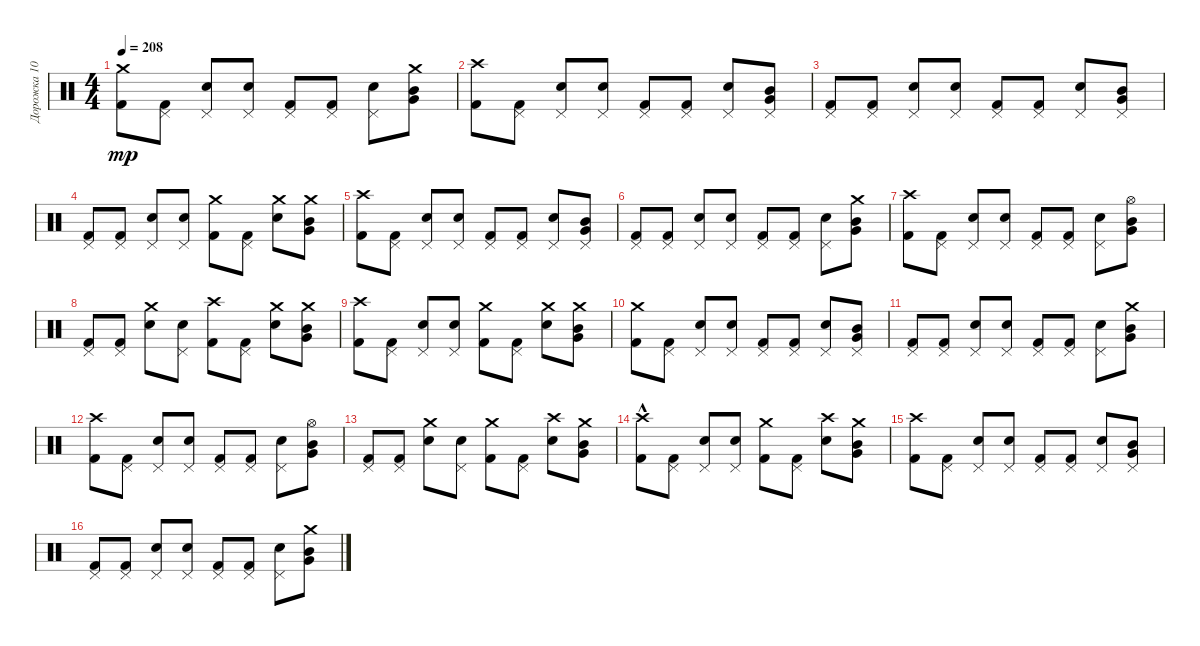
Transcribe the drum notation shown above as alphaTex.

\track ("Дорожка 10" "Дорожка 10") {instrument percussion}
\staff {score}
\articulation defaults
\ts (4 4)
\tempo 208
\clef neutral
\ks c
("Kick (hit) 2" "Crash medium (hit)").8{dy mp} ("Kick (hit) 2" "Pedal Hi-Hat (hit)").8 ("Snare (hit) 2" "Pedal Hi-Hat (hit)").8 ("Snare (hit) 2" "Pedal Hi-Hat (hit)").8 ("Kick (hit) 2" "Pedal Hi-Hat (hit)").8 ("Kick (hit) 2" "Pedal Hi-Hat (hit)").8 ("Snare (hit) 2" "Pedal Hi-Hat (hit)").8 ("Mid Tom (hit)" "Very Low Tom (hit)" "Crash medium (hit)").8 |
("Kick (hit) 2" "Crash high (hit)").8 ("Kick (hit) 2" "Pedal Hi-Hat (hit)").8 ("Snare (hit) 2" "Pedal Hi-Hat (hit)").8 ("Snare (hit) 2" "Pedal Hi-Hat (hit)").8 ("Kick (hit) 2" "Pedal Hi-Hat (hit)").8 ("Kick (hit) 2" "Pedal Hi-Hat (hit)").8 ("Snare (hit) 2" "Pedal Hi-Hat (hit)").8 ("Mid Tom (hit)" "Very Low Tom (hit)" "Pedal Hi-Hat (hit)").8 |
("Kick (hit) 2" "Pedal Hi-Hat (hit)").8 ("Kick (hit) 2" "Pedal Hi-Hat (hit)").8 ("Snare (hit) 2" "Pedal Hi-Hat (hit)").8 ("Snare (hit) 2" "Pedal Hi-Hat (hit)").8 ("Kick (hit) 2" "Pedal Hi-Hat (hit)").8 ("Kick (hit) 2" "Pedal Hi-Hat (hit)").8 ("Snare (hit) 2" "Pedal Hi-Hat (hit)").8 ("Mid Tom (hit)" "Very Low Tom (hit)" "Pedal Hi-Hat (hit)").8 |
("Kick (hit) 2" "Pedal Hi-Hat (hit)").8 ("Kick (hit) 2" "Pedal Hi-Hat (hit)").8 ("Snare (hit) 2" "Pedal Hi-Hat (hit)").8 ("Snare (hit) 2" "Pedal Hi-Hat (hit)").8 ("Kick (hit) 2" "Crash medium (hit)").8 ("Kick (hit) 2" "Pedal Hi-Hat (hit)").8 ("Snare (hit) 2" "Crash medium (hit)").8 ("Mid Tom (hit)" "Very Low Tom (hit)" "Crash medium (hit)").8 |
("Kick (hit) 2" "Crash high (hit)").8 ("Kick (hit) 2" "Pedal Hi-Hat (hit)").8 ("Snare (hit) 2" "Pedal Hi-Hat (hit)").8 ("Snare (hit) 2" "Pedal Hi-Hat (hit)").8 ("Kick (hit) 2" "Pedal Hi-Hat (hit)").8 ("Kick (hit) 2" "Pedal Hi-Hat (hit)").8 ("Snare (hit) 2" "Pedal Hi-Hat (hit)").8 ("Mid Tom (hit)" "Very Low Tom (hit)" "Pedal Hi-Hat (hit)").8 |
("Kick (hit) 2" "Pedal Hi-Hat (hit)").8 ("Kick (hit) 2" "Pedal Hi-Hat (hit)").8 ("Snare (hit) 2" "Pedal Hi-Hat (hit)").8 ("Snare (hit) 2" "Pedal Hi-Hat (hit)").8 ("Kick (hit) 2" "Pedal Hi-Hat (hit)").8 ("Kick (hit) 2" "Pedal Hi-Hat (hit)").8 ("Snare (hit) 2" "Pedal Hi-Hat (hit)").8 ("Mid Tom (hit)" "Very Low Tom (hit)" "Crash medium (hit)").8 |
("Kick (hit) 2" "Crash high (hit)").8 ("Kick (hit) 2" "Pedal Hi-Hat (hit)").8 ("Snare (hit) 2" "Pedal Hi-Hat (hit)").8 ("Snare (hit) 2" "Pedal Hi-Hat (hit)").8 ("Kick (hit) 2" "Pedal Hi-Hat (hit)").8 ("Kick (hit) 2" "Pedal Hi-Hat (hit)").8 ("Snare (hit) 2" "Pedal Hi-Hat (hit)").8 ("Mid Tom (hit)" "Very Low Tom (hit)" "Hi-Hat (open)").8 |
("Kick (hit) 2" "Pedal Hi-Hat (hit)").8 ("Kick (hit) 2" "Pedal Hi-Hat (hit)").8 ("Snare (hit) 2" "Crash medium (hit)").8 ("Snare (hit) 2" "Pedal Hi-Hat (hit)").8 ("Kick (hit) 2" "Crash high (hit)").8 ("Kick (hit) 2" "Pedal Hi-Hat (hit)").8 ("Snare (hit) 2" "Crash medium (hit)").8 ("Mid Tom (hit)" "Very Low Tom (hit)" "Crash medium (hit)").8 |
("Kick (hit) 2" "Crash high (hit)").8 ("Kick (hit) 2" "Pedal Hi-Hat (hit)").8 ("Snare (hit) 2" "Pedal Hi-Hat (hit)").8 ("Snare (hit) 2" "Pedal Hi-Hat (hit)").8 ("Kick (hit) 2" "Crash medium (hit)").8 ("Kick (hit) 2" "Pedal Hi-Hat (hit)").8 ("Snare (hit) 2" "Crash medium (hit)").8 ("Mid Tom (hit)" "Very Low Tom (hit)" "Crash medium (hit)").8 |
("Kick (hit) 2" "Crash medium (hit)").8 ("Kick (hit) 2" "Pedal Hi-Hat (hit)").8 ("Snare (hit) 2" "Pedal Hi-Hat (hit)").8 ("Snare (hit) 2" "Pedal Hi-Hat (hit)").8 ("Kick (hit) 2" "Pedal Hi-Hat (hit)").8 ("Kick (hit) 2" "Pedal Hi-Hat (hit)").8 ("Snare (hit) 2" "Pedal Hi-Hat (hit)").8 ("Mid Tom (hit)" "Very Low Tom (hit)" "Pedal Hi-Hat (hit)").8 |
("Kick (hit) 2" "Pedal Hi-Hat (hit)").8 ("Kick (hit) 2" "Pedal Hi-Hat (hit)").8 ("Snare (hit) 2" "Pedal Hi-Hat (hit)").8 ("Snare (hit) 2" "Pedal Hi-Hat (hit)").8 ("Kick (hit) 2" "Pedal Hi-Hat (hit)").8 ("Kick (hit) 2" "Pedal Hi-Hat (hit)").8 ("Snare (hit) 2" "Pedal Hi-Hat (hit)").8 ("Mid Tom (hit)" "Very Low Tom (hit)" "Crash medium (hit)").8 |
("Kick (hit) 2" "Crash high (hit)").8 ("Kick (hit) 2" "Pedal Hi-Hat (hit)").8 ("Snare (hit) 2" "Pedal Hi-Hat (hit)").8 ("Snare (hit) 2" "Pedal Hi-Hat (hit)").8 ("Kick (hit) 2" "Pedal Hi-Hat (hit)").8 ("Kick (hit) 2" "Pedal Hi-Hat (hit)").8 ("Snare (hit) 2" "Pedal Hi-Hat (hit)").8 ("Mid Tom (hit)" "Very Low Tom (hit)" "Hi-Hat (open)").8 |
("Kick (hit) 2" "Pedal Hi-Hat (hit)").8 ("Kick (hit) 2" "Pedal Hi-Hat (hit)").8 ("Snare (hit) 2" "Crash medium (hit)").8 ("Snare (hit) 2" "Pedal Hi-Hat (hit)").8 ("Kick (hit) 2" "Crash medium (hit)").8 ("Kick (hit) 2" "Pedal Hi-Hat (hit)").8 ("Snare (hit) 2" "Crash high (hit)").8 ("Mid Tom (hit)" "Very Low Tom (hit)" "Crash medium (hit)").8 |
("Kick (hit) 2" "Crash high (hit)"{hac}).8 ("Kick (hit) 2" "Pedal Hi-Hat (hit)").8 ("Snare (hit) 2" "Pedal Hi-Hat (hit)").8 ("Snare (hit) 2" "Pedal Hi-Hat (hit)").8 ("Kick (hit) 2" "Crash medium (hit)").8 ("Kick (hit) 2" "Pedal Hi-Hat (hit)").8 ("Snare (hit) 2" "Crash high (hit)").8 ("Mid Tom (hit)" "Very Low Tom (hit)" "Crash medium (hit)").8 |
("Kick (hit) 2" "Crash high (hit)").8 ("Kick (hit) 2" "Pedal Hi-Hat (hit)").8 ("Snare (hit) 2" "Pedal Hi-Hat (hit)").8 ("Snare (hit) 2" "Pedal Hi-Hat (hit)").8 ("Kick (hit) 2" "Pedal Hi-Hat (hit)").8 ("Kick (hit) 2" "Pedal Hi-Hat (hit)").8 ("Snare (hit) 2" "Pedal Hi-Hat (hit)").8 ("Mid Tom (hit)" "Very Low Tom (hit)" "Pedal Hi-Hat (hit)").8 |
("Kick (hit) 2" "Pedal Hi-Hat (hit)").8 ("Kick (hit) 2" "Pedal Hi-Hat (hit)").8 ("Snare (hit) 2" "Pedal Hi-Hat (hit)").8 ("Snare (hit) 2" "Pedal Hi-Hat (hit)").8 ("Kick (hit) 2" "Pedal Hi-Hat (hit)").8 ("Kick (hit) 2" "Pedal Hi-Hat (hit)").8 ("Snare (hit) 2" "Pedal Hi-Hat (hit)").8 ("Mid Tom (hit)" "Very Low Tom (hit)" "Crash medium (hit)").8
